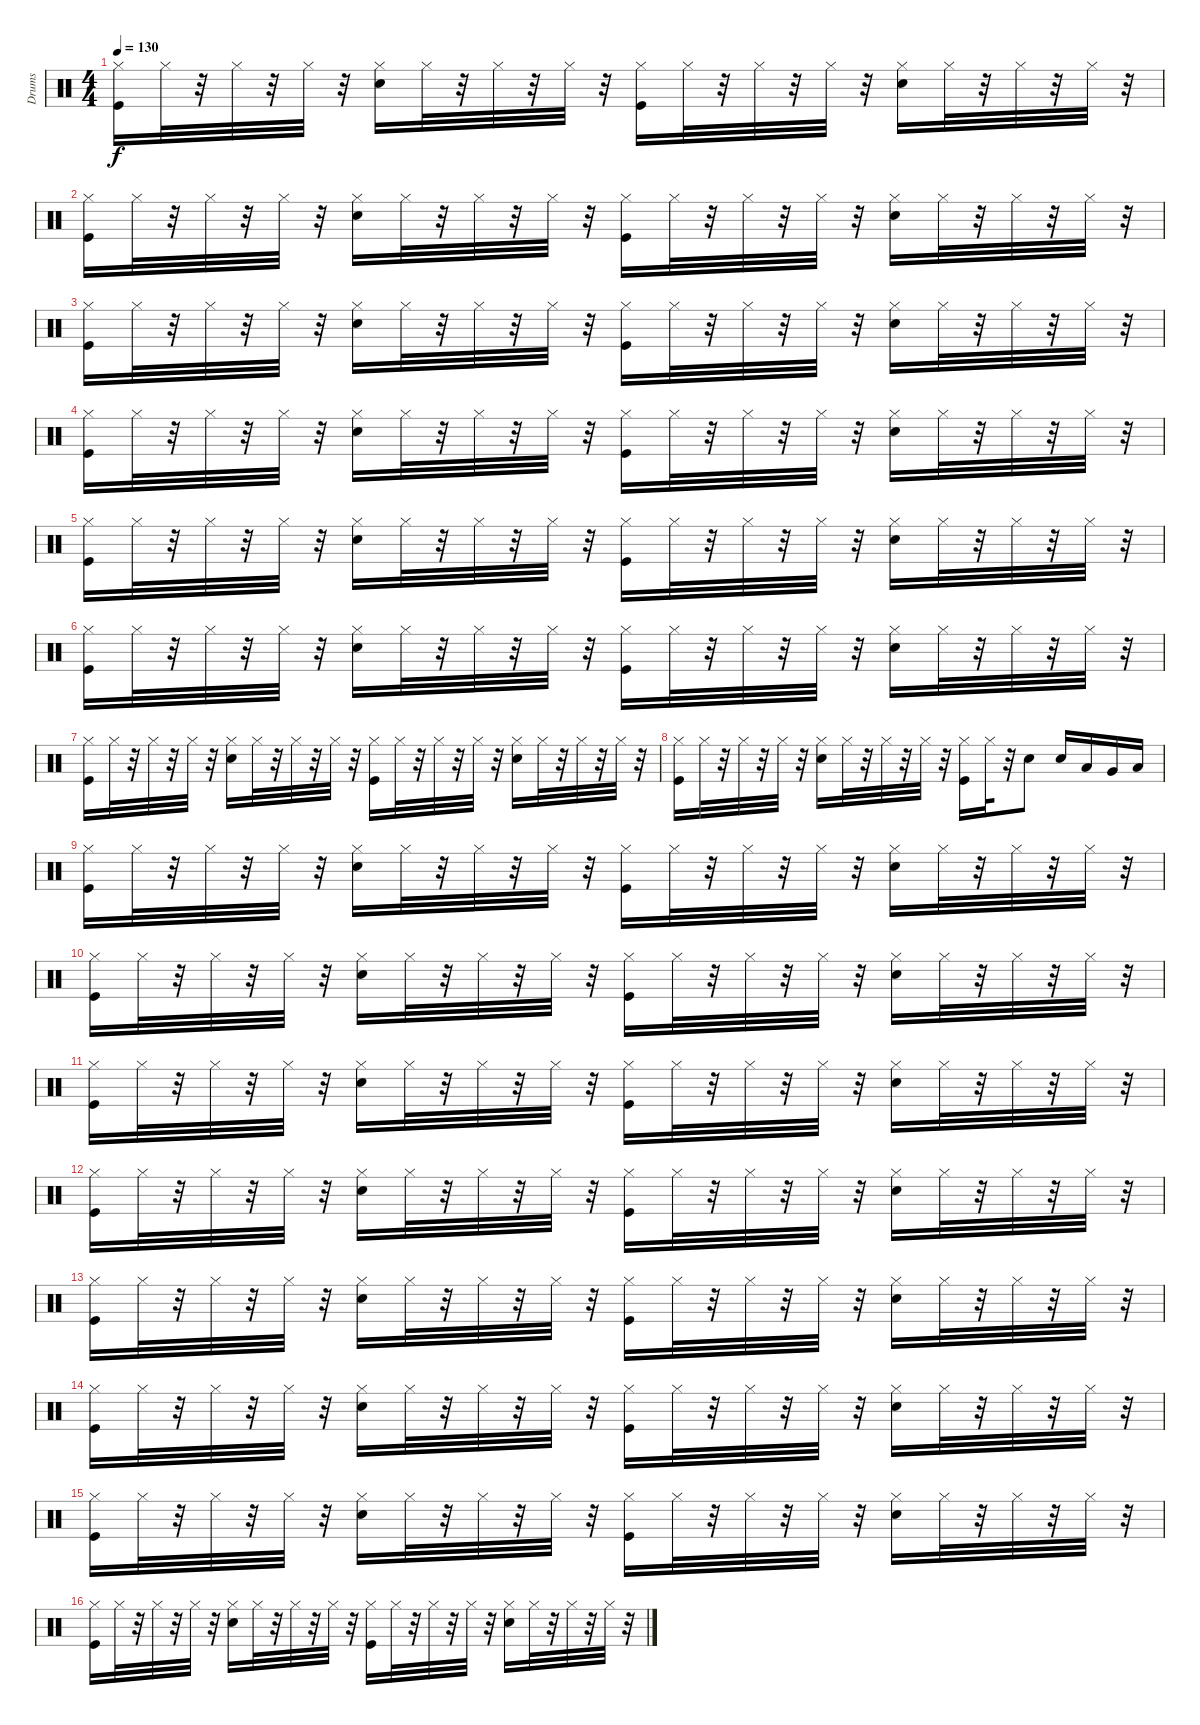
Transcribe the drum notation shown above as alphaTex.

\track ("Drums" "Drums") {instrument percussion}
\staff {score}
\articulation defaults
\ts (4 4)
\tempo 130
\clef neutral
\ks c
("Hi-Hat (closed)" "Kick (hit)").16{dy f} "Hi-Hat (closed)".32 r.32 "Hi-Hat (closed)".32 r.32 "Hi-Hat (closed)".32 r.32 ("Hi-Hat (closed)" "Snare (hit) 2").16 "Hi-Hat (closed)".32 r.32 "Hi-Hat (closed)".32 r.32 "Hi-Hat (closed)".32 r.32 ("Hi-Hat (closed)" "Kick (hit)").16 "Hi-Hat (closed)".32 r.32 "Hi-Hat (closed)".32 r.32 "Hi-Hat (closed)".32 r.32 ("Hi-Hat (closed)" "Snare (hit) 2").16 "Hi-Hat (closed)".32 r.32 "Hi-Hat (closed)".32 r.32 "Hi-Hat (closed)".32 r.32 |
("Hi-Hat (closed)" "Kick (hit)").16 "Hi-Hat (closed)".32 r.32 "Hi-Hat (closed)".32 r.32 "Hi-Hat (closed)".32 r.32 ("Hi-Hat (closed)" "Snare (hit) 2").16 "Hi-Hat (closed)".32 r.32 "Hi-Hat (closed)".32 r.32 "Hi-Hat (closed)".32 r.32 ("Hi-Hat (closed)" "Kick (hit)").16 "Hi-Hat (closed)".32 r.32 "Hi-Hat (closed)".32 r.32 "Hi-Hat (closed)".32 r.32 ("Hi-Hat (closed)" "Snare (hit) 2").16 "Hi-Hat (closed)".32 r.32 "Hi-Hat (closed)".32 r.32 "Hi-Hat (closed)".32 r.32 |
("Hi-Hat (closed)" "Kick (hit)").16 "Hi-Hat (closed)".32 r.32 "Hi-Hat (closed)".32 r.32 "Hi-Hat (closed)".32 r.32 ("Hi-Hat (closed)" "Snare (hit) 2").16 "Hi-Hat (closed)".32 r.32 "Hi-Hat (closed)".32 r.32 "Hi-Hat (closed)".32 r.32 ("Hi-Hat (closed)" "Kick (hit)").16 "Hi-Hat (closed)".32 r.32 "Hi-Hat (closed)".32 r.32 "Hi-Hat (closed)".32 r.32 ("Hi-Hat (closed)" "Snare (hit) 2").16 "Hi-Hat (closed)".32 r.32 "Hi-Hat (closed)".32 r.32 "Hi-Hat (closed)".32 r.32 |
("Hi-Hat (closed)" "Kick (hit)").16 "Hi-Hat (closed)".32 r.32 "Hi-Hat (closed)".32 r.32 "Hi-Hat (closed)".32 r.32 ("Hi-Hat (closed)" "Snare (hit) 2").16 "Hi-Hat (closed)".32 r.32 "Hi-Hat (closed)".32 r.32 "Hi-Hat (closed)".32 r.32 ("Hi-Hat (closed)" "Kick (hit)").16 "Hi-Hat (closed)".32 r.32 "Hi-Hat (closed)".32 r.32 "Hi-Hat (closed)".32 r.32 ("Hi-Hat (closed)" "Snare (hit) 2").16 "Hi-Hat (closed)".32 r.32 "Hi-Hat (closed)".32 r.32 "Hi-Hat (closed)".32 r.32 |
("Hi-Hat (closed)" "Kick (hit)").16 "Hi-Hat (closed)".32 r.32 "Hi-Hat (closed)".32 r.32 "Hi-Hat (closed)".32 r.32 ("Hi-Hat (closed)" "Snare (hit) 2").16 "Hi-Hat (closed)".32 r.32 "Hi-Hat (closed)".32 r.32 "Hi-Hat (closed)".32 r.32 ("Hi-Hat (closed)" "Kick (hit)").16 "Hi-Hat (closed)".32 r.32 "Hi-Hat (closed)".32 r.32 "Hi-Hat (closed)".32 r.32 ("Hi-Hat (closed)" "Snare (hit) 2").16 "Hi-Hat (closed)".32 r.32 "Hi-Hat (closed)".32 r.32 "Hi-Hat (closed)".32 r.32 |
("Hi-Hat (closed)" "Kick (hit)").16 "Hi-Hat (closed)".32 r.32 "Hi-Hat (closed)".32 r.32 "Hi-Hat (closed)".32 r.32 ("Hi-Hat (closed)" "Snare (hit) 2").16 "Hi-Hat (closed)".32 r.32 "Hi-Hat (closed)".32 r.32 "Hi-Hat (closed)".32 r.32 ("Hi-Hat (closed)" "Kick (hit)").16 "Hi-Hat (closed)".32 r.32 "Hi-Hat (closed)".32 r.32 "Hi-Hat (closed)".32 r.32 ("Hi-Hat (closed)" "Snare (hit) 2").16 "Hi-Hat (closed)".32 r.32 "Hi-Hat (closed)".32 r.32 "Hi-Hat (closed)".32 r.32 |
("Hi-Hat (closed)" "Kick (hit)").16 "Hi-Hat (closed)".32 r.32 "Hi-Hat (closed)".32 r.32 "Hi-Hat (closed)".32 r.32 ("Hi-Hat (closed)" "Snare (hit) 2").16 "Hi-Hat (closed)".32 r.32 "Hi-Hat (closed)".32 r.32 "Hi-Hat (closed)".32 r.32 ("Hi-Hat (closed)" "Kick (hit)").16 "Hi-Hat (closed)".32 r.32 "Hi-Hat (closed)".32 r.32 "Hi-Hat (closed)".32 r.32 ("Hi-Hat (closed)" "Snare (hit) 2").16 "Hi-Hat (closed)".32 r.32 "Hi-Hat (closed)".32 r.32 "Hi-Hat (closed)".32 r.32 |
("Kick (hit)" "Hi-Hat (closed)").16 "Hi-Hat (closed)".32 r.32 "Hi-Hat (closed)".32 r.32 "Hi-Hat (closed)".32 r.32 ("Snare (hit) 2" "Hi-Hat (closed)").16 "Hi-Hat (closed)".32 r.32 "Hi-Hat (closed)".32 r.32 "Hi-Hat (closed)".32 r.32 ("Kick (hit)" "Hi-Hat (closed)").16 "Hi-Hat (closed)".32 r.32 "Snare (hit) 2".8 "Snare (hit) 2".16 "Low Tom (hit)".16 "Very Low Tom (hit)".16 "Low Floor Tom (hit)".16 |
("Hi-Hat (closed)" "Kick (hit)").16 "Hi-Hat (closed)".32 r.32 "Hi-Hat (closed)".32 r.32 "Hi-Hat (closed)".32 r.32 ("Hi-Hat (closed)" "Snare (hit) 2").16 "Hi-Hat (closed)".32 r.32 "Hi-Hat (closed)".32 r.32 "Hi-Hat (closed)".32 r.32 ("Hi-Hat (closed)" "Kick (hit)").16 "Hi-Hat (closed)".32 r.32 "Hi-Hat (closed)".32 r.32 "Hi-Hat (closed)".32 r.32 ("Hi-Hat (closed)" "Snare (hit) 2").16 "Hi-Hat (closed)".32 r.32 "Hi-Hat (closed)".32 r.32 "Hi-Hat (closed)".32 r.32 |
("Hi-Hat (closed)" "Kick (hit)").16 "Hi-Hat (closed)".32 r.32 "Hi-Hat (closed)".32 r.32 "Hi-Hat (closed)".32 r.32 ("Hi-Hat (closed)" "Snare (hit) 2").16 "Hi-Hat (closed)".32 r.32 "Hi-Hat (closed)".32 r.32 "Hi-Hat (closed)".32 r.32 ("Hi-Hat (closed)" "Kick (hit)").16 "Hi-Hat (closed)".32 r.32 "Hi-Hat (closed)".32 r.32 "Hi-Hat (closed)".32 r.32 ("Hi-Hat (closed)" "Snare (hit) 2").16 "Hi-Hat (closed)".32 r.32 "Hi-Hat (closed)".32 r.32 "Hi-Hat (closed)".32 r.32 |
("Hi-Hat (closed)" "Kick (hit)").16 "Hi-Hat (closed)".32 r.32 "Hi-Hat (closed)".32 r.32 "Hi-Hat (closed)".32 r.32 ("Hi-Hat (closed)" "Snare (hit) 2").16 "Hi-Hat (closed)".32 r.32 "Hi-Hat (closed)".32 r.32 "Hi-Hat (closed)".32 r.32 ("Hi-Hat (closed)" "Kick (hit)").16 "Hi-Hat (closed)".32 r.32 "Hi-Hat (closed)".32 r.32 "Hi-Hat (closed)".32 r.32 ("Hi-Hat (closed)" "Snare (hit) 2").16 "Hi-Hat (closed)".32 r.32 "Hi-Hat (closed)".32 r.32 "Hi-Hat (closed)".32 r.32 |
("Hi-Hat (closed)" "Kick (hit)").16 "Hi-Hat (closed)".32 r.32 "Hi-Hat (closed)".32 r.32 "Hi-Hat (closed)".32 r.32 ("Hi-Hat (closed)" "Snare (hit) 2").16 "Hi-Hat (closed)".32 r.32 "Hi-Hat (closed)".32 r.32 "Hi-Hat (closed)".32 r.32 ("Hi-Hat (closed)" "Kick (hit)").16 "Hi-Hat (closed)".32 r.32 "Hi-Hat (closed)".32 r.32 "Hi-Hat (closed)".32 r.32 ("Hi-Hat (closed)" "Snare (hit) 2").16 "Hi-Hat (closed)".32 r.32 "Hi-Hat (closed)".32 r.32 "Hi-Hat (closed)".32 r.32 |
("Hi-Hat (closed)" "Kick (hit)").16 "Hi-Hat (closed)".32 r.32 "Hi-Hat (closed)".32 r.32 "Hi-Hat (closed)".32 r.32 ("Hi-Hat (closed)" "Snare (hit) 2").16 "Hi-Hat (closed)".32 r.32 "Hi-Hat (closed)".32 r.32 "Hi-Hat (closed)".32 r.32 ("Hi-Hat (closed)" "Kick (hit)").16 "Hi-Hat (closed)".32 r.32 "Hi-Hat (closed)".32 r.32 "Hi-Hat (closed)".32 r.32 ("Hi-Hat (closed)" "Snare (hit) 2").16 "Hi-Hat (closed)".32 r.32 "Hi-Hat (closed)".32 r.32 "Hi-Hat (closed)".32 r.32 |
("Hi-Hat (closed)" "Kick (hit)").16 "Hi-Hat (closed)".32 r.32 "Hi-Hat (closed)".32 r.32 "Hi-Hat (closed)".32 r.32 ("Hi-Hat (closed)" "Snare (hit) 2").16 "Hi-Hat (closed)".32 r.32 "Hi-Hat (closed)".32 r.32 "Hi-Hat (closed)".32 r.32 ("Hi-Hat (closed)" "Kick (hit)").16 "Hi-Hat (closed)".32 r.32 "Hi-Hat (closed)".32 r.32 "Hi-Hat (closed)".32 r.32 ("Hi-Hat (closed)" "Snare (hit) 2").16 "Hi-Hat (closed)".32 r.32 "Hi-Hat (closed)".32 r.32 "Hi-Hat (closed)".32 r.32 |
("Hi-Hat (closed)" "Kick (hit)").16 "Hi-Hat (closed)".32 r.32 "Hi-Hat (closed)".32 r.32 "Hi-Hat (closed)".32 r.32 ("Hi-Hat (closed)" "Snare (hit) 2").16 "Hi-Hat (closed)".32 r.32 "Hi-Hat (closed)".32 r.32 "Hi-Hat (closed)".32 r.32 ("Hi-Hat (closed)" "Kick (hit)").16 "Hi-Hat (closed)".32 r.32 "Hi-Hat (closed)".32 r.32 "Hi-Hat (closed)".32 r.32 ("Hi-Hat (closed)" "Snare (hit) 2").16 "Hi-Hat (closed)".32 r.32 "Hi-Hat (closed)".32 r.32 "Hi-Hat (closed)".32 r.32 |
("Hi-Hat (closed)" "Kick (hit)").16 "Hi-Hat (closed)".32 r.32 "Hi-Hat (closed)".32 r.32 "Hi-Hat (closed)".32 r.32 ("Hi-Hat (closed)" "Snare (hit) 2").16 "Hi-Hat (closed)".32 r.32 "Hi-Hat (closed)".32 r.32 "Hi-Hat (closed)".32 r.32 ("Hi-Hat (closed)" "Kick (hit)").16 "Hi-Hat (closed)".32 r.32 "Hi-Hat (closed)".32 r.32 "Hi-Hat (closed)".32 r.32 ("Hi-Hat (closed)" "Snare (hit) 2").16 "Hi-Hat (closed)".32 r.32 "Hi-Hat (closed)".32 r.32 "Hi-Hat (closed)".32 r.32
